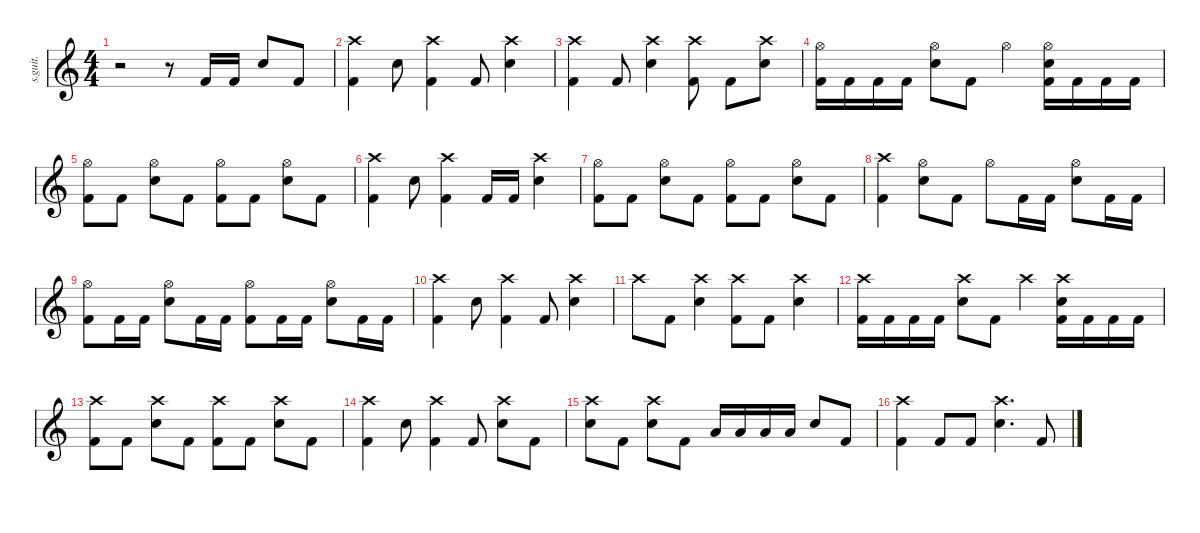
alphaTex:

\defaultSystemsLayout 4
\hideDynamics
\bracketExtendMode nobrackets
\track ("" "s.guit.") {instrument percussion}
\staff {score}
\articulation defaults
\ts (4 4)
\tempo (212 hide)
\clef g2
\ks c
r.2{dy f} r.8 "Kick (hit) 2".16{lyrics (0 "") lyrics (1 "") lyrics (2 "") lyrics (3 "") lyrics (4 "")} "Kick (hit) 2".16{lyrics (0 "") lyrics (1 "") lyrics (2 "") lyrics (3 "") lyrics (4 "")} "Snare (hit) 2".8{lyrics (0 "") lyrics (1 "") lyrics (2 "") lyrics (3 "") lyrics (4 "")} "Kick (hit) 2".8{lyrics (0 "") lyrics (1 "") lyrics (2 "") lyrics (3 "") lyrics (4 "")} |
("Kick (hit) 2" "Crash high (hit)").4{lyrics (0 "") lyrics (1 "") lyrics (2 "") lyrics (3 "") lyrics (4 "")} "Snare (hit) 2".8{lyrics (0 "") lyrics (1 "") lyrics (2 "") lyrics (3 "") lyrics (4 "")} ("Kick (hit) 2" "Crash high (hit)").4{lyrics (0 "") lyrics (1 "") lyrics (2 "") lyrics (3 "") lyrics (4 "")} "Kick (hit) 2".8{lyrics (0 "") lyrics (1 "") lyrics (2 "") lyrics (3 "") lyrics (4 "")} ("Snare (hit) 2" "Crash high (hit)").4{lyrics (0 "") lyrics (1 "") lyrics (2 "") lyrics (3 "") lyrics (4 "")} |
("Kick (hit) 2" "Crash high (hit)").4{lyrics (0 "") lyrics (1 "") lyrics (2 "") lyrics (3 "") lyrics (4 "")} "Kick (hit) 2".8{lyrics (0 "") lyrics (1 "") lyrics (2 "") lyrics (3 "") lyrics (4 "")} ("Snare (hit) 2" "Crash high (hit)").4{lyrics (0 "") lyrics (1 "") lyrics (2 "") lyrics (3 "") lyrics (4 "")} ("Kick (hit) 2" "Crash high (hit)").8{lyrics (0 "") lyrics (1 "") lyrics (2 "") lyrics (3 "") lyrics (4 "")} "Kick (hit) 2".8{lyrics (0 "") lyrics (1 "") lyrics (2 "") lyrics (3 "") lyrics (4 "")} ("Snare (hit) 2" "Crash high (hit)").8{lyrics (0 "") lyrics (1 "") lyrics (2 "") lyrics (3 "") lyrics (4 "")} |
("Kick (hit) 2" "Hi-Hat (open)").16{lyrics (0 "") lyrics (1 "") lyrics (2 "") lyrics (3 "") lyrics (4 "")} "Kick (hit) 2".16{lyrics (0 "") lyrics (1 "") lyrics (2 "") lyrics (3 "") lyrics (4 "")} "Kick (hit) 2".16{lyrics (0 "") lyrics (1 "") lyrics (2 "") lyrics (3 "") lyrics (4 "")} "Kick (hit) 2".16{lyrics (0 "") lyrics (1 "") lyrics (2 "") lyrics (3 "") lyrics (4 "")} ("Snare (hit) 2" "Hi-Hat (open)").8{lyrics (0 "") lyrics (1 "") lyrics (2 "") lyrics (3 "") lyrics (4 "")} "Kick (hit) 2".8{lyrics (0 "") lyrics (1 "") lyrics (2 "") lyrics (3 "") lyrics (4 "")} "Hi-Hat (open)".4{lyrics (0 "") lyrics (1 "") lyrics (2 "") lyrics (3 "") lyrics (4 "")} ("Kick (hit) 2" "Snare (hit) 2" "Hi-Hat (open)").16{lyrics (0 "") lyrics (1 "") lyrics (2 "") lyrics (3 "") lyrics (4 "")} "Kick (hit) 2".16{lyrics (0 "") lyrics (1 "") lyrics (2 "") lyrics (3 "") lyrics (4 "")} "Kick (hit) 2".16{lyrics (0 "") lyrics (1 "") lyrics (2 "") lyrics (3 "") lyrics (4 "")} "Kick (hit) 2".16{lyrics (0 "") lyrics (1 "") lyrics (2 "") lyrics (3 "") lyrics (4 "")} |
("Kick (hit) 2" "Hi-Hat (open)").8{lyrics (0 "") lyrics (1 "") lyrics (2 "") lyrics (3 "") lyrics (4 "")} "Kick (hit) 2".8{lyrics (0 "") lyrics (1 "") lyrics (2 "") lyrics (3 "") lyrics (4 "")} ("Snare (hit) 2" "Hi-Hat (open)").8{lyrics (0 "") lyrics (1 "") lyrics (2 "") lyrics (3 "") lyrics (4 "")} "Kick (hit) 2".8{lyrics (0 "") lyrics (1 "") lyrics (2 "") lyrics (3 "") lyrics (4 "")} ("Kick (hit) 2" "Hi-Hat (open)").8{lyrics (0 "") lyrics (1 "") lyrics (2 "") lyrics (3 "") lyrics (4 "")} "Kick (hit) 2".8{lyrics (0 "") lyrics (1 "") lyrics (2 "") lyrics (3 "") lyrics (4 "")} ("Snare (hit) 2" "Hi-Hat (open)").8{lyrics (0 "") lyrics (1 "") lyrics (2 "") lyrics (3 "") lyrics (4 "")} "Kick (hit) 2".8{lyrics (0 "") lyrics (1 "") lyrics (2 "") lyrics (3 "") lyrics (4 "")} |
("Kick (hit) 2" "Crash high (hit)").4{lyrics (0 "") lyrics (1 "") lyrics (2 "") lyrics (3 "") lyrics (4 "")} "Snare (hit) 2".8{lyrics (0 "") lyrics (1 "") lyrics (2 "") lyrics (3 "") lyrics (4 "")} ("Kick (hit) 2" "Crash high (hit)").4{lyrics (0 "") lyrics (1 "") lyrics (2 "") lyrics (3 "") lyrics (4 "")} "Kick (hit) 2".16{lyrics (0 "") lyrics (1 "") lyrics (2 "") lyrics (3 "") lyrics (4 "")} "Kick (hit) 2".16{lyrics (0 "") lyrics (1 "") lyrics (2 "") lyrics (3 "") lyrics (4 "")} ("Snare (hit) 2" "Crash high (hit)").4{lyrics (0 "") lyrics (1 "") lyrics (2 "") lyrics (3 "") lyrics (4 "")} |
("Kick (hit) 2" "Hi-Hat (open)").8{lyrics (0 "") lyrics (1 "") lyrics (2 "") lyrics (3 "") lyrics (4 "")} "Kick (hit) 2".8{lyrics (0 "") lyrics (1 "") lyrics (2 "") lyrics (3 "") lyrics (4 "")} ("Snare (hit) 2" "Hi-Hat (open)").8{lyrics (0 "") lyrics (1 "") lyrics (2 "") lyrics (3 "") lyrics (4 "")} "Kick (hit) 2".8{lyrics (0 "") lyrics (1 "") lyrics (2 "") lyrics (3 "") lyrics (4 "")} ("Kick (hit) 2" "Hi-Hat (open)").8{lyrics (0 "") lyrics (1 "") lyrics (2 "") lyrics (3 "") lyrics (4 "")} "Kick (hit) 2".8{lyrics (0 "") lyrics (1 "") lyrics (2 "") lyrics (3 "") lyrics (4 "")} ("Snare (hit) 2" "Hi-Hat (open)").8{lyrics (0 "") lyrics (1 "") lyrics (2 "") lyrics (3 "") lyrics (4 "")} "Kick (hit) 2".8{lyrics (0 "") lyrics (1 "") lyrics (2 "") lyrics (3 "") lyrics (4 "")} |
("Kick (hit) 2" "Crash high (hit)").4{lyrics (0 "") lyrics (1 "") lyrics (2 "") lyrics (3 "") lyrics (4 "")} ("Snare (hit) 2" "Hi-Hat (open)").8{lyrics (0 "") lyrics (1 "") lyrics (2 "") lyrics (3 "") lyrics (4 "")} "Kick (hit) 2".8{lyrics (0 "") lyrics (1 "") lyrics (2 "") lyrics (3 "") lyrics (4 "")} "Hi-Hat (open)".8{lyrics (0 "") lyrics (1 "") lyrics (2 "") lyrics (3 "") lyrics (4 "")} "Kick (hit) 2".16{lyrics (0 "") lyrics (1 "") lyrics (2 "") lyrics (3 "") lyrics (4 "")} "Kick (hit) 2".16{lyrics (0 "") lyrics (1 "") lyrics (2 "") lyrics (3 "") lyrics (4 "")} ("Snare (hit) 2" "Hi-Hat (open)").8{lyrics (0 "") lyrics (1 "") lyrics (2 "") lyrics (3 "") lyrics (4 "")} "Kick (hit) 2".16{lyrics (0 "") lyrics (1 "") lyrics (2 "") lyrics (3 "") lyrics (4 "")} "Kick (hit) 2".16{lyrics (0 "") lyrics (1 "") lyrics (2 "") lyrics (3 "") lyrics (4 "")} |
("Kick (hit) 2" "Hi-Hat (open)").8{lyrics (0 "") lyrics (1 "") lyrics (2 "") lyrics (3 "") lyrics (4 "")} "Kick (hit) 2".16{lyrics (0 "") lyrics (1 "") lyrics (2 "") lyrics (3 "") lyrics (4 "")} "Kick (hit) 2".16{lyrics (0 "") lyrics (1 "") lyrics (2 "") lyrics (3 "") lyrics (4 "")} ("Snare (hit) 2" "Hi-Hat (open)").8{lyrics (0 "") lyrics (1 "") lyrics (2 "") lyrics (3 "") lyrics (4 "")} "Kick (hit) 2".16{lyrics (0 "") lyrics (1 "") lyrics (2 "") lyrics (3 "") lyrics (4 "")} "Kick (hit) 2".16{lyrics (0 "") lyrics (1 "") lyrics (2 "") lyrics (3 "") lyrics (4 "")} ("Kick (hit) 2" "Hi-Hat (open)").8{lyrics (0 "") lyrics (1 "") lyrics (2 "") lyrics (3 "") lyrics (4 "")} "Kick (hit) 2".16{lyrics (0 "") lyrics (1 "") lyrics (2 "") lyrics (3 "") lyrics (4 "")} "Kick (hit) 2".16{lyrics (0 "") lyrics (1 "") lyrics (2 "") lyrics (3 "") lyrics (4 "")} ("Snare (hit) 2" "Hi-Hat (open)").8{lyrics (0 "") lyrics (1 "") lyrics (2 "") lyrics (3 "") lyrics (4 "")} "Kick (hit) 2".16{lyrics (0 "") lyrics (1 "") lyrics (2 "") lyrics (3 "") lyrics (4 "")} "Kick (hit) 2".16{lyrics (0 "") lyrics (1 "") lyrics (2 "") lyrics (3 "") lyrics (4 "")} |
("Kick (hit) 2" "Crash high (hit)").4{lyrics (0 "") lyrics (1 "") lyrics (2 "") lyrics (3 "") lyrics (4 "")} "Snare (hit) 2".8{lyrics (0 "") lyrics (1 "") lyrics (2 "") lyrics (3 "") lyrics (4 "")} ("Kick (hit) 2" "Crash high (hit)").4{lyrics (0 "") lyrics (1 "") lyrics (2 "") lyrics (3 "") lyrics (4 "")} "Kick (hit) 2".8{lyrics (0 "") lyrics (1 "") lyrics (2 "") lyrics (3 "") lyrics (4 "")} ("Snare (hit) 2" "Crash high (hit)").4{lyrics (0 "") lyrics (1 "") lyrics (2 "") lyrics (3 "") lyrics (4 "")} |
"Crash high (hit)".8{lyrics (0 "") lyrics (1 "") lyrics (2 "") lyrics (3 "") lyrics (4 "")} "Kick (hit) 2".8{lyrics (0 "") lyrics (1 "") lyrics (2 "") lyrics (3 "") lyrics (4 "")} ("Snare (hit) 2" "Crash high (hit)").4{lyrics (0 "") lyrics (1 "") lyrics (2 "") lyrics (3 "") lyrics (4 "")} ("Kick (hit) 2" "Crash high (hit)").8{lyrics (0 "") lyrics (1 "") lyrics (2 "") lyrics (3 "") lyrics (4 "")} "Kick (hit) 2".8{lyrics (0 "") lyrics (1 "") lyrics (2 "") lyrics (3 "") lyrics (4 "")} ("Snare (hit) 2" "Crash high (hit)").4{lyrics (0 "") lyrics (1 "") lyrics (2 "") lyrics (3 "") lyrics (4 "")} |
("Kick (hit) 2" "Crash high (hit)").16{lyrics (0 "") lyrics (1 "") lyrics (2 "") lyrics (3 "") lyrics (4 "")} "Kick (hit) 2".16{lyrics (0 "") lyrics (1 "") lyrics (2 "") lyrics (3 "") lyrics (4 "")} "Kick (hit) 2".16{lyrics (0 "") lyrics (1 "") lyrics (2 "") lyrics (3 "") lyrics (4 "")} "Kick (hit) 2".16{lyrics (0 "") lyrics (1 "") lyrics (2 "") lyrics (3 "") lyrics (4 "")} ("Snare (hit) 2" "Crash high (hit)").8{lyrics (0 "") lyrics (1 "") lyrics (2 "") lyrics (3 "") lyrics (4 "")} "Kick (hit) 2".8{lyrics (0 "") lyrics (1 "") lyrics (2 "") lyrics (3 "") lyrics (4 "")} "Crash high (hit)".4{lyrics (0 "") lyrics (1 "") lyrics (2 "") lyrics (3 "") lyrics (4 "")} ("Kick (hit) 2" "Snare (hit) 2" "Crash high (hit)").16{lyrics (0 "") lyrics (1 "") lyrics (2 "") lyrics (3 "") lyrics (4 "")} "Kick (hit) 2".16{lyrics (0 "") lyrics (1 "") lyrics (2 "") lyrics (3 "") lyrics (4 "")} "Kick (hit) 2".16{lyrics (0 "") lyrics (1 "") lyrics (2 "") lyrics (3 "") lyrics (4 "")} "Kick (hit) 2".16{lyrics (0 "") lyrics (1 "") lyrics (2 "") lyrics (3 "") lyrics (4 "")} |
("Kick (hit) 2" "Crash high (hit)").8{lyrics (0 "") lyrics (1 "") lyrics (2 "") lyrics (3 "") lyrics (4 "")} "Kick (hit) 2".8{lyrics (0 "") lyrics (1 "") lyrics (2 "") lyrics (3 "") lyrics (4 "")} ("Snare (hit) 2" "Crash high (hit)").8{lyrics (0 "") lyrics (1 "") lyrics (2 "") lyrics (3 "") lyrics (4 "")} "Kick (hit) 2".8{lyrics (0 "") lyrics (1 "") lyrics (2 "") lyrics (3 "") lyrics (4 "")} ("Kick (hit) 2" "Crash high (hit)").8{lyrics (0 "") lyrics (1 "") lyrics (2 "") lyrics (3 "") lyrics (4 "")} "Kick (hit) 2".8{lyrics (0 "") lyrics (1 "") lyrics (2 "") lyrics (3 "") lyrics (4 "")} ("Snare (hit) 2" "Crash high (hit)").8{lyrics (0 "") lyrics (1 "") lyrics (2 "") lyrics (3 "") lyrics (4 "")} "Kick (hit) 2".8{lyrics (0 "") lyrics (1 "") lyrics (2 "") lyrics (3 "") lyrics (4 "")} |
("Kick (hit) 2" "Crash high (hit)").4{lyrics (0 "") lyrics (1 "") lyrics (2 "") lyrics (3 "") lyrics (4 "")} "Snare (hit) 2".8{lyrics (0 "") lyrics (1 "") lyrics (2 "") lyrics (3 "") lyrics (4 "")} ("Kick (hit) 2" "Crash high (hit)").4{lyrics (0 "") lyrics (1 "") lyrics (2 "") lyrics (3 "") lyrics (4 "")} "Kick (hit) 2".8{lyrics (0 "") lyrics (1 "") lyrics (2 "") lyrics (3 "") lyrics (4 "")} ("Snare (hit) 2" "Crash high (hit)").8{lyrics (0 "") lyrics (1 "") lyrics (2 "") lyrics (3 "") lyrics (4 "")} "Kick (hit) 2".8{lyrics (0 "") lyrics (1 "") lyrics (2 "") lyrics (3 "") lyrics (4 "")} |
("Snare (hit) 2" "Crash high (hit)").8{lyrics (0 "") lyrics (1 "") lyrics (2 "") lyrics (3 "") lyrics (4 "")} "Kick (hit) 2".8{lyrics (0 "") lyrics (1 "") lyrics (2 "") lyrics (3 "") lyrics (4 "")} ("Snare (hit) 2" "Crash high (hit)").8{lyrics (0 "") lyrics (1 "") lyrics (2 "") lyrics (3 "") lyrics (4 "")} "Kick (hit) 2".8{lyrics (0 "") lyrics (1 "") lyrics (2 "") lyrics (3 "") lyrics (4 "")} "Low Tom (hit)".16{lyrics (0 "") lyrics (1 "") lyrics (2 "") lyrics (3 "") lyrics (4 "")} "Low Tom (hit)".16{lyrics (0 "") lyrics (1 "") lyrics (2 "") lyrics (3 "") lyrics (4 "")} "Low Tom (hit)".16{lyrics (0 "") lyrics (1 "") lyrics (2 "") lyrics (3 "") lyrics (4 "")} "Low Tom (hit)".16{lyrics (0 "") lyrics (1 "") lyrics (2 "") lyrics (3 "") lyrics (4 "")} "Snare (hit) 2".8{lyrics (0 "") lyrics (1 "") lyrics (2 "") lyrics (3 "") lyrics (4 "")} "Kick (hit) 2".8{lyrics (0 "") lyrics (1 "") lyrics (2 "") lyrics (3 "") lyrics (4 "")} |
("Kick (hit) 2" "Crash high (hit)").4{lyrics (0 "") lyrics (1 "") lyrics (2 "") lyrics (3 "") lyrics (4 "")} "Kick (hit) 2".8{lyrics (0 "") lyrics (1 "") lyrics (2 "") lyrics (3 "") lyrics (4 "")} "Kick (hit) 2".8{lyrics (0 "") lyrics (1 "") lyrics (2 "") lyrics (3 "") lyrics (4 "")} ("Snare (hit) 2" "Crash high (hit)").4{d lyrics (0 "") lyrics (1 "") lyrics (2 "") lyrics (3 "") lyrics (4 "")} "Kick (hit) 2".8{lyrics (0 "") lyrics (1 "") lyrics (2 "") lyrics (3 "") lyrics (4 "")}
